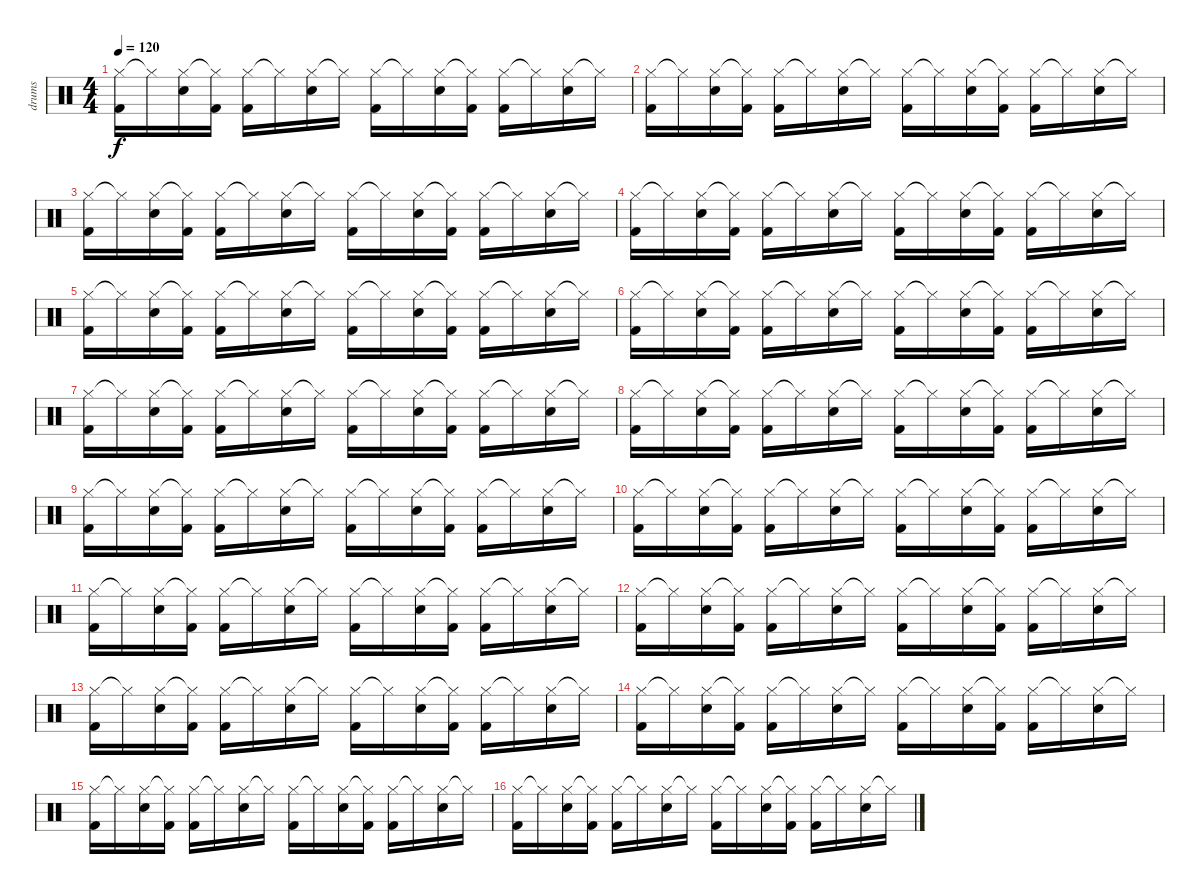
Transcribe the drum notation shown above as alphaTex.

\track ("drums" "drums") {instrument percussion}
\staff {score}
\articulation defaults
\ts (4 4)
\tempo 120
\clef neutral
\ks c
("Hi-Hat (closed)" "Kick (hit) 2").16{dy f} "Hi-Hat (closed)"{t}.16 ("Hi-Hat (closed)" "Snare (hit) 2").16 ("Hi-Hat (closed)"{t} "Kick (hit) 2").16 ("Hi-Hat (closed)" "Kick (hit) 2").16 "Hi-Hat (closed)"{t}.16 ("Hi-Hat (closed)" "Snare (hit) 2").16 "Hi-Hat (closed)"{t}.16 ("Hi-Hat (closed)" "Kick (hit) 2").16 "Hi-Hat (closed)"{t}.16 ("Hi-Hat (closed)" "Snare (hit) 2").16 ("Hi-Hat (closed)"{t} "Kick (hit) 2").16 ("Hi-Hat (closed)" "Kick (hit) 2").16 "Hi-Hat (closed)"{t}.16 ("Hi-Hat (closed)" "Snare (hit) 2").16 "Hi-Hat (closed)"{t}.16 |
("Hi-Hat (closed)" "Kick (hit) 2").16 "Hi-Hat (closed)"{t}.16 ("Hi-Hat (closed)" "Snare (hit) 2").16 ("Hi-Hat (closed)"{t} "Kick (hit) 2").16 ("Hi-Hat (closed)" "Kick (hit) 2").16 "Hi-Hat (closed)"{t}.16 ("Hi-Hat (closed)" "Snare (hit) 2").16 "Hi-Hat (closed)"{t}.16 ("Hi-Hat (closed)" "Kick (hit) 2").16 "Hi-Hat (closed)"{t}.16 ("Hi-Hat (closed)" "Snare (hit) 2").16 ("Hi-Hat (closed)"{t} "Kick (hit) 2").16 ("Hi-Hat (closed)" "Kick (hit) 2").16 "Hi-Hat (closed)"{t}.16 ("Hi-Hat (closed)" "Snare (hit) 2").16 "Hi-Hat (closed)"{t}.16 |
("Hi-Hat (closed)" "Kick (hit) 2").16 "Hi-Hat (closed)"{t}.16 ("Hi-Hat (closed)" "Snare (hit) 2").16 ("Hi-Hat (closed)"{t} "Kick (hit) 2").16 ("Hi-Hat (closed)" "Kick (hit) 2").16 "Hi-Hat (closed)"{t}.16 ("Hi-Hat (closed)" "Snare (hit) 2").16 "Hi-Hat (closed)"{t}.16 ("Hi-Hat (closed)" "Kick (hit) 2").16 "Hi-Hat (closed)"{t}.16 ("Hi-Hat (closed)" "Snare (hit) 2").16 ("Hi-Hat (closed)"{t} "Kick (hit) 2").16 ("Hi-Hat (closed)" "Kick (hit) 2").16 "Hi-Hat (closed)"{t}.16 ("Hi-Hat (closed)" "Snare (hit) 2").16 "Hi-Hat (closed)"{t}.16 |
("Hi-Hat (closed)" "Kick (hit) 2").16 "Hi-Hat (closed)"{t}.16 ("Hi-Hat (closed)" "Snare (hit) 2").16 ("Hi-Hat (closed)"{t} "Kick (hit) 2").16 ("Hi-Hat (closed)" "Kick (hit) 2").16 "Hi-Hat (closed)"{t}.16 ("Hi-Hat (closed)" "Snare (hit) 2").16 "Hi-Hat (closed)"{t}.16 ("Hi-Hat (closed)" "Kick (hit) 2").16 "Hi-Hat (closed)"{t}.16 ("Hi-Hat (closed)" "Snare (hit) 2").16 ("Hi-Hat (closed)"{t} "Kick (hit) 2").16 ("Hi-Hat (closed)" "Kick (hit) 2").16 "Hi-Hat (closed)"{t}.16 ("Hi-Hat (closed)" "Snare (hit) 2").16 "Hi-Hat (closed)"{t}.16 |
("Hi-Hat (closed)" "Kick (hit) 2").16 "Hi-Hat (closed)"{t}.16 ("Hi-Hat (closed)" "Snare (hit) 2").16 ("Hi-Hat (closed)"{t} "Kick (hit) 2").16 ("Hi-Hat (closed)" "Kick (hit) 2").16 "Hi-Hat (closed)"{t}.16 ("Hi-Hat (closed)" "Snare (hit) 2").16 "Hi-Hat (closed)"{t}.16 ("Hi-Hat (closed)" "Kick (hit) 2").16 "Hi-Hat (closed)"{t}.16 ("Hi-Hat (closed)" "Snare (hit) 2").16 ("Hi-Hat (closed)"{t} "Kick (hit) 2").16 ("Hi-Hat (closed)" "Kick (hit) 2").16 "Hi-Hat (closed)"{t}.16 ("Hi-Hat (closed)" "Snare (hit) 2").16 "Hi-Hat (closed)"{t}.16 |
("Hi-Hat (closed)" "Kick (hit) 2").16 "Hi-Hat (closed)"{t}.16 ("Hi-Hat (closed)" "Snare (hit) 2").16 ("Hi-Hat (closed)"{t} "Kick (hit) 2").16 ("Hi-Hat (closed)" "Kick (hit) 2").16 "Hi-Hat (closed)"{t}.16 ("Hi-Hat (closed)" "Snare (hit) 2").16 "Hi-Hat (closed)"{t}.16 ("Hi-Hat (closed)" "Kick (hit) 2").16 "Hi-Hat (closed)"{t}.16 ("Hi-Hat (closed)" "Snare (hit) 2").16 ("Hi-Hat (closed)"{t} "Kick (hit) 2").16 ("Hi-Hat (closed)" "Kick (hit) 2").16 "Hi-Hat (closed)"{t}.16 ("Hi-Hat (closed)" "Snare (hit) 2").16 "Hi-Hat (closed)"{t}.16 |
("Hi-Hat (closed)" "Kick (hit) 2").16 "Hi-Hat (closed)"{t}.16 ("Hi-Hat (closed)" "Snare (hit) 2").16 ("Hi-Hat (closed)"{t} "Kick (hit) 2").16 ("Hi-Hat (closed)" "Kick (hit) 2").16 "Hi-Hat (closed)"{t}.16 ("Hi-Hat (closed)" "Snare (hit) 2").16 "Hi-Hat (closed)"{t}.16 ("Hi-Hat (closed)" "Kick (hit) 2").16 "Hi-Hat (closed)"{t}.16 ("Hi-Hat (closed)" "Snare (hit) 2").16 ("Hi-Hat (closed)"{t} "Kick (hit) 2").16 ("Hi-Hat (closed)" "Kick (hit) 2").16 "Hi-Hat (closed)"{t}.16 ("Hi-Hat (closed)" "Snare (hit) 2").16 "Hi-Hat (closed)"{t}.16 |
("Hi-Hat (closed)" "Kick (hit) 2").16 "Hi-Hat (closed)"{t}.16 ("Hi-Hat (closed)" "Snare (hit) 2").16 ("Hi-Hat (closed)"{t} "Kick (hit) 2").16 ("Hi-Hat (closed)" "Kick (hit) 2").16 "Hi-Hat (closed)"{t}.16 ("Hi-Hat (closed)" "Snare (hit) 2").16 "Hi-Hat (closed)"{t}.16 ("Hi-Hat (closed)" "Kick (hit) 2").16 "Hi-Hat (closed)"{t}.16 ("Hi-Hat (closed)" "Snare (hit) 2").16 ("Hi-Hat (closed)"{t} "Kick (hit) 2").16 ("Hi-Hat (closed)" "Kick (hit) 2").16 "Hi-Hat (closed)"{t}.16 ("Hi-Hat (closed)" "Snare (hit) 2").16 "Hi-Hat (closed)"{t}.16 |
("Hi-Hat (closed)" "Kick (hit) 2").16 "Hi-Hat (closed)"{t}.16 ("Hi-Hat (closed)" "Snare (hit) 2").16 ("Hi-Hat (closed)"{t} "Kick (hit) 2").16 ("Hi-Hat (closed)" "Kick (hit) 2").16 "Hi-Hat (closed)"{t}.16 ("Hi-Hat (closed)" "Snare (hit) 2").16 "Hi-Hat (closed)"{t}.16 ("Hi-Hat (closed)" "Kick (hit) 2").16 "Hi-Hat (closed)"{t}.16 ("Hi-Hat (closed)" "Snare (hit) 2").16 ("Hi-Hat (closed)"{t} "Kick (hit) 2").16 ("Hi-Hat (closed)" "Kick (hit) 2").16 "Hi-Hat (closed)"{t}.16 ("Hi-Hat (closed)" "Snare (hit) 2").16 "Hi-Hat (closed)"{t}.16 |
("Hi-Hat (closed)" "Kick (hit) 2").16 "Hi-Hat (closed)"{t}.16 ("Hi-Hat (closed)" "Snare (hit) 2").16 ("Hi-Hat (closed)"{t} "Kick (hit) 2").16 ("Hi-Hat (closed)" "Kick (hit) 2").16 "Hi-Hat (closed)"{t}.16 ("Hi-Hat (closed)" "Snare (hit) 2").16 "Hi-Hat (closed)"{t}.16 ("Hi-Hat (closed)" "Kick (hit) 2").16 "Hi-Hat (closed)"{t}.16 ("Hi-Hat (closed)" "Snare (hit) 2").16 ("Hi-Hat (closed)"{t} "Kick (hit) 2").16 ("Hi-Hat (closed)" "Kick (hit) 2").16 "Hi-Hat (closed)"{t}.16 ("Hi-Hat (closed)" "Snare (hit) 2").16 "Hi-Hat (closed)"{t}.16 |
("Hi-Hat (closed)" "Kick (hit) 2").16 "Hi-Hat (closed)"{t}.16 ("Hi-Hat (closed)" "Snare (hit) 2").16 ("Hi-Hat (closed)"{t} "Kick (hit) 2").16 ("Hi-Hat (closed)" "Kick (hit) 2").16 "Hi-Hat (closed)"{t}.16 ("Hi-Hat (closed)" "Snare (hit) 2").16 "Hi-Hat (closed)"{t}.16 ("Hi-Hat (closed)" "Kick (hit) 2").16 "Hi-Hat (closed)"{t}.16 ("Hi-Hat (closed)" "Snare (hit) 2").16 ("Hi-Hat (closed)"{t} "Kick (hit) 2").16 ("Hi-Hat (closed)" "Kick (hit) 2").16 "Hi-Hat (closed)"{t}.16 ("Hi-Hat (closed)" "Snare (hit) 2").16 "Hi-Hat (closed)"{t}.16 |
("Hi-Hat (closed)" "Kick (hit) 2").16 "Hi-Hat (closed)"{t}.16 ("Hi-Hat (closed)" "Snare (hit) 2").16 ("Hi-Hat (closed)"{t} "Kick (hit) 2").16 ("Hi-Hat (closed)" "Kick (hit) 2").16 "Hi-Hat (closed)"{t}.16 ("Hi-Hat (closed)" "Snare (hit) 2").16 "Hi-Hat (closed)"{t}.16 ("Hi-Hat (closed)" "Kick (hit) 2").16 "Hi-Hat (closed)"{t}.16 ("Hi-Hat (closed)" "Snare (hit) 2").16 ("Hi-Hat (closed)"{t} "Kick (hit) 2").16 ("Hi-Hat (closed)" "Kick (hit) 2").16 "Hi-Hat (closed)"{t}.16 ("Hi-Hat (closed)" "Snare (hit) 2").16 "Hi-Hat (closed)"{t}.16 |
("Hi-Hat (closed)" "Kick (hit) 2").16 "Hi-Hat (closed)"{t}.16 ("Hi-Hat (closed)" "Snare (hit) 2").16 ("Hi-Hat (closed)"{t} "Kick (hit) 2").16 ("Hi-Hat (closed)" "Kick (hit) 2").16 "Hi-Hat (closed)"{t}.16 ("Hi-Hat (closed)" "Snare (hit) 2").16 "Hi-Hat (closed)"{t}.16 ("Hi-Hat (closed)" "Kick (hit) 2").16 "Hi-Hat (closed)"{t}.16 ("Hi-Hat (closed)" "Snare (hit) 2").16 ("Hi-Hat (closed)"{t} "Kick (hit) 2").16 ("Hi-Hat (closed)" "Kick (hit) 2").16 "Hi-Hat (closed)"{t}.16 ("Hi-Hat (closed)" "Snare (hit) 2").16 "Hi-Hat (closed)"{t}.16 |
("Hi-Hat (closed)" "Kick (hit) 2").16 "Hi-Hat (closed)"{t}.16 ("Hi-Hat (closed)" "Snare (hit) 2").16 ("Hi-Hat (closed)"{t} "Kick (hit) 2").16 ("Hi-Hat (closed)" "Kick (hit) 2").16 "Hi-Hat (closed)"{t}.16 ("Hi-Hat (closed)" "Snare (hit) 2").16 "Hi-Hat (closed)"{t}.16 ("Hi-Hat (closed)" "Kick (hit) 2").16 "Hi-Hat (closed)"{t}.16 ("Hi-Hat (closed)" "Snare (hit) 2").16 ("Hi-Hat (closed)"{t} "Kick (hit) 2").16 ("Hi-Hat (closed)" "Kick (hit) 2").16 "Hi-Hat (closed)"{t}.16 ("Hi-Hat (closed)" "Snare (hit) 2").16 "Hi-Hat (closed)"{t}.16 |
("Hi-Hat (closed)" "Kick (hit) 2").16 "Hi-Hat (closed)"{t}.16 ("Hi-Hat (closed)" "Snare (hit) 2").16 ("Hi-Hat (closed)"{t} "Kick (hit) 2").16 ("Hi-Hat (closed)" "Kick (hit) 2").16 "Hi-Hat (closed)"{t}.16 ("Hi-Hat (closed)" "Snare (hit) 2").16 "Hi-Hat (closed)"{t}.16 ("Hi-Hat (closed)" "Kick (hit) 2").16 "Hi-Hat (closed)"{t}.16 ("Hi-Hat (closed)" "Snare (hit) 2").16 ("Hi-Hat (closed)"{t} "Kick (hit) 2").16 ("Hi-Hat (closed)" "Kick (hit) 2").16 "Hi-Hat (closed)"{t}.16 ("Hi-Hat (closed)" "Snare (hit) 2").16 "Hi-Hat (closed)"{t}.16 |
("Hi-Hat (closed)" "Kick (hit) 2").16 "Hi-Hat (closed)"{t}.16 ("Hi-Hat (closed)" "Snare (hit) 2").16 ("Hi-Hat (closed)"{t} "Kick (hit) 2").16 ("Hi-Hat (closed)" "Kick (hit) 2").16 "Hi-Hat (closed)"{t}.16 ("Hi-Hat (closed)" "Snare (hit) 2").16 "Hi-Hat (closed)"{t}.16 ("Hi-Hat (closed)" "Kick (hit) 2").16 "Hi-Hat (closed)"{t}.16 ("Hi-Hat (closed)" "Snare (hit) 2").16 ("Hi-Hat (closed)"{t} "Kick (hit) 2").16 ("Hi-Hat (closed)" "Kick (hit) 2").16 "Hi-Hat (closed)"{t}.16 ("Hi-Hat (closed)" "Snare (hit) 2").16 "Hi-Hat (closed)"{t}.16
